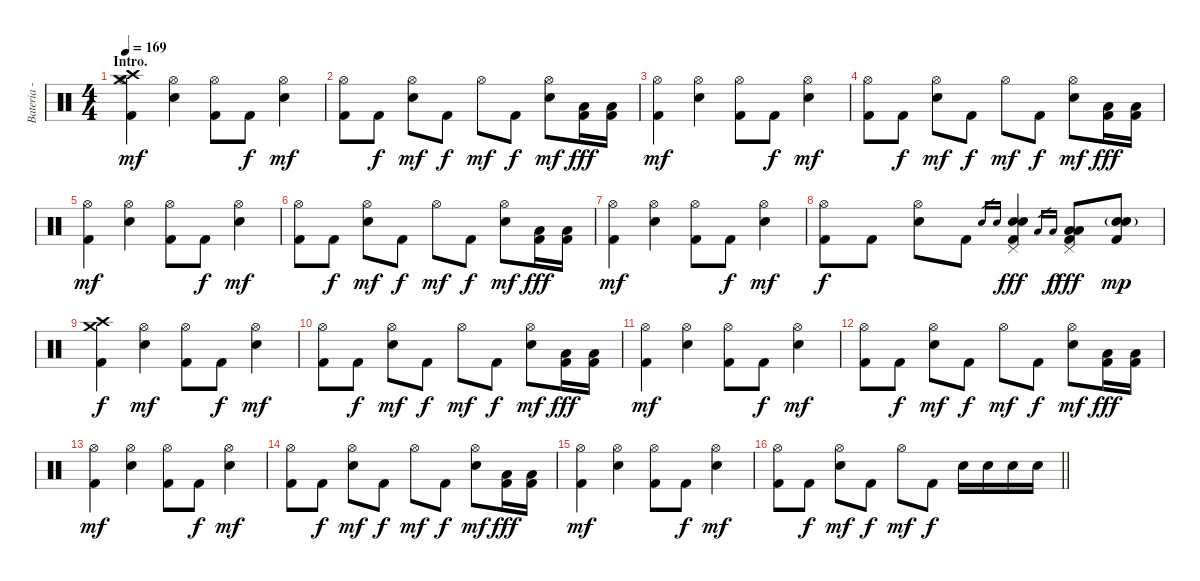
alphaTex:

\track ("Bateria - Larzon" "Bateria - ") {instrument percussion}
\staff {score}
\articulation defaults
\ts (4 4)
\section ("" "Intro.")
\tempo 169
\clef neutral
\ks c
("Kick (hit) 2" "Hi-Hat (open)" "Crash medium (hit)" "Crash high (hit)").4{dy mf} ("Electric Snare (hit)" "Hi-Hat (open)").4 ("Kick (hit) 2" "Hi-Hat (open)").8 "Kick (hit) 2".8{dy f} ("Electric Snare (hit)" "Hi-Hat (open)").4{dy mf} |
("Kick (hit) 2" "Hi-Hat (open)").8 "Kick (hit) 2".8{dy f} ("Electric Snare (hit)" "Hi-Hat (open)").8{dy mf} "Kick (hit) 2".8{dy f} "Hi-Hat (open)".8{dy mf} "Kick (hit) 2".8{dy f} ("Electric Snare (hit)" "Hi-Hat (open)").8{dy mf} ("Low Floor Tom (hit)" "Kick (hit) 2").16{dy fff} ("Low Floor Tom (hit)" "Kick (hit) 2").16 |
("Kick (hit) 2" "Hi-Hat (open)").4{dy mf} ("Electric Snare (hit)" "Hi-Hat (open)").4 ("Kick (hit) 2" "Hi-Hat (open)").8 "Kick (hit) 2".8{dy f} ("Electric Snare (hit)" "Hi-Hat (open)").4{dy mf} |
("Kick (hit) 2" "Hi-Hat (open)").8 "Kick (hit) 2".8{dy f} ("Electric Snare (hit)" "Hi-Hat (open)").8{dy mf} "Kick (hit) 2".8{dy f} "Hi-Hat (open)".8{dy mf} "Kick (hit) 2".8{dy f} ("Electric Snare (hit)" "Hi-Hat (open)").8{dy mf} ("Low Floor Tom (hit)" "Kick (hit) 2").16{dy fff} ("Low Floor Tom (hit)" "Kick (hit) 2").16 |
("Kick (hit) 2" "Hi-Hat (open)").4{dy mf} ("Electric Snare (hit)" "Hi-Hat (open)").4 ("Kick (hit) 2" "Hi-Hat (open)").8 "Kick (hit) 2".8{dy f} ("Electric Snare (hit)" "Hi-Hat (open)").4{dy mf} |
("Kick (hit) 2" "Hi-Hat (open)").8 "Kick (hit) 2".8{dy f} ("Electric Snare (hit)" "Hi-Hat (open)").8{dy mf} "Kick (hit) 2".8{dy f} "Hi-Hat (open)".8{dy mf} "Kick (hit) 2".8{dy f} ("Electric Snare (hit)" "Hi-Hat (open)").8{dy mf} ("Low Floor Tom (hit)" "Kick (hit) 2").16{dy fff} ("Low Floor Tom (hit)" "Kick (hit) 2").16 |
("Kick (hit) 2" "Hi-Hat (open)").4{dy mf} ("Electric Snare (hit)" "Hi-Hat (open)").4 ("Kick (hit) 2" "Hi-Hat (open)").8 "Kick (hit) 2".8{dy f} ("Electric Snare (hit)" "Hi-Hat (open)").4{dy mf} |
("Kick (hit) 2" "Hi-Hat (open)").8{dy f} "Kick (hit) 2".8 ("Electric Snare (hit)" "Hi-Hat (open)").8 "Kick (hit) 2".8 "Electric Snare (hit)".16{gr} "Electric Snare (hit)".16{gr} ("Electric Snare (hit)" "Electric Snare (hit)" "Kick (hit) 2" "Pedal Hi-Hat (hit)").4{dy fff} "Low Floor Tom (hit)".16{gr} "Low Floor Tom (hit)".16{gr dy f} ("Low Floor Tom (hit)" "Low Floor Tom (hit)" "Kick (hit) 2" "Pedal Hi-Hat (hit)").8{dy fff} ("Electric Snare (hit)" "Electric Snare (hit)"{g} "Kick (hit) 2").8{dy mp} |
("Kick (hit) 2" "Crash medium (hit)" "Crash high (hit)").4{dy f} ("Electric Snare (hit)" "Hi-Hat (open)").4{dy mf} ("Kick (hit) 2" "Hi-Hat (open)").8 "Kick (hit) 2".8{dy f} ("Electric Snare (hit)" "Hi-Hat (open)").4{dy mf} |
("Kick (hit) 2" "Hi-Hat (open)").8 "Kick (hit) 2".8{dy f} ("Electric Snare (hit)" "Hi-Hat (open)").8{dy mf} "Kick (hit) 2".8{dy f} "Hi-Hat (open)".8{dy mf} "Kick (hit) 2".8{dy f} ("Electric Snare (hit)" "Hi-Hat (open)").8{dy mf} ("Low Floor Tom (hit)" "Kick (hit) 2").16{dy fff} ("Low Floor Tom (hit)" "Kick (hit) 2").16 |
("Kick (hit) 2" "Hi-Hat (open)").4{dy mf} ("Electric Snare (hit)" "Hi-Hat (open)").4 ("Kick (hit) 2" "Hi-Hat (open)").8 "Kick (hit) 2".8{dy f} ("Electric Snare (hit)" "Hi-Hat (open)").4{dy mf} |
("Kick (hit) 2" "Hi-Hat (open)").8 "Kick (hit) 2".8{dy f} ("Electric Snare (hit)" "Hi-Hat (open)").8{dy mf} "Kick (hit) 2".8{dy f} "Hi-Hat (open)".8{dy mf} "Kick (hit) 2".8{dy f} ("Electric Snare (hit)" "Hi-Hat (open)").8{dy mf} ("Low Floor Tom (hit)" "Kick (hit) 2").16{dy fff} ("Low Floor Tom (hit)" "Kick (hit) 2").16 |
("Kick (hit) 2" "Hi-Hat (open)").4{dy mf} ("Electric Snare (hit)" "Hi-Hat (open)").4 ("Kick (hit) 2" "Hi-Hat (open)").8 "Kick (hit) 2".8{dy f} ("Electric Snare (hit)" "Hi-Hat (open)").4{dy mf} |
("Kick (hit) 2" "Hi-Hat (open)").8 "Kick (hit) 2".8{dy f} ("Electric Snare (hit)" "Hi-Hat (open)").8{dy mf} "Kick (hit) 2".8{dy f} "Hi-Hat (open)".8{dy mf} "Kick (hit) 2".8{dy f} ("Electric Snare (hit)" "Hi-Hat (open)").8{dy mf} ("Low Floor Tom (hit)" "Kick (hit) 2").16{dy fff} ("Low Floor Tom (hit)" "Kick (hit) 2").16 |
("Kick (hit) 2" "Hi-Hat (open)").4{dy mf} ("Electric Snare (hit)" "Hi-Hat (open)").4 ("Kick (hit) 2" "Hi-Hat (open)").8 "Kick (hit) 2".8{dy f} ("Electric Snare (hit)" "Hi-Hat (open)").4{dy mf} |
\barLineRight lightlight
("Kick (hit) 2" "Hi-Hat (open)").8 "Kick (hit) 2".8{dy f} ("Electric Snare (hit)" "Hi-Hat (open)").8{dy mf} "Kick (hit) 2".8{dy f} "Hi-Hat (open)".8{dy mf} "Kick (hit) 2".8{dy f} "Electric Snare (hit)".16 "Electric Snare (hit)".16 "Electric Snare (hit)".16 "Electric Snare (hit)".16
